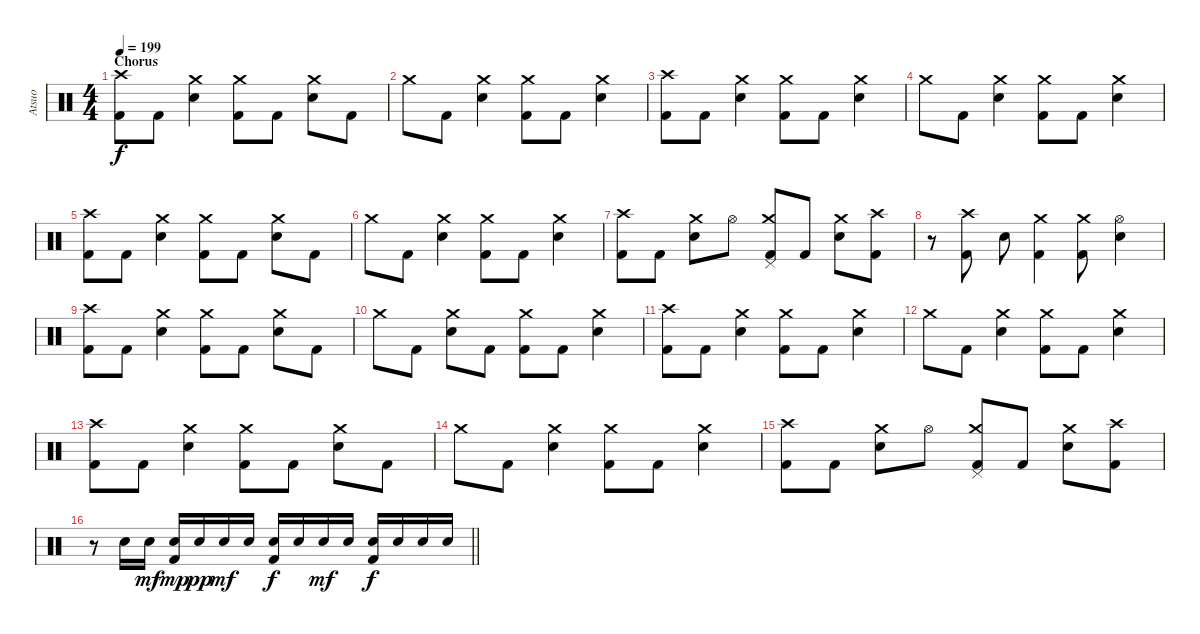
\track ("Atsuo" "Atsuo") {instrument percussion}
\staff {score}
\articulation defaults
\ts (4 4)
\section ("" "Chorus")
\tempo 199
\clef neutral
\ks c
("Crash high (hit)" "Kick (hit) 2").8{dy f} "Kick (hit) 2".8 ("Crash medium (hit)" "Electric Snare (hit)").4 ("Crash medium (hit)" "Kick (hit) 2").8 "Kick (hit) 2".8 ("Crash medium (hit)" "Electric Snare (hit)").8 "Kick (hit) 2".8 |
"Crash medium (hit)".8 "Kick (hit) 2".8 ("Crash medium (hit)" "Electric Snare (hit)").4 ("Crash medium (hit)" "Kick (hit) 2").8 "Kick (hit) 2".8 ("Crash medium (hit)" "Electric Snare (hit)").4 |
("Crash high (hit)" "Kick (hit) 2").8 "Kick (hit) 2".8 ("Crash medium (hit)" "Electric Snare (hit)").4 ("Crash medium (hit)" "Kick (hit) 2").8 "Kick (hit) 2".8 ("Crash medium (hit)" "Electric Snare (hit)").4 |
"Crash medium (hit)".8 "Kick (hit) 2".8 ("Crash medium (hit)" "Electric Snare (hit)").4 ("Crash medium (hit)" "Kick (hit) 2").8 "Kick (hit) 2".8 ("Crash medium (hit)" "Electric Snare (hit)").4 |
("Crash high (hit)" "Kick (hit) 2").8 "Kick (hit) 2".8 ("Crash medium (hit)" "Electric Snare (hit)").4 ("Crash medium (hit)" "Kick (hit) 2").8 "Kick (hit) 2".8 ("Crash medium (hit)" "Electric Snare (hit)").8 "Kick (hit) 2".8 |
"Crash medium (hit)".8 "Kick (hit) 2".8 ("Crash medium (hit)" "Electric Snare (hit)").4 ("Crash medium (hit)" "Kick (hit) 2").8 "Kick (hit) 2".8 ("Crash medium (hit)" "Electric Snare (hit)").4 |
("Crash high (hit)" "Kick (hit) 2").8 "Kick (hit) 2".8 ("Crash medium (hit)" "Electric Snare (hit)").8 "Hi-Hat (open)".8 ("Pedal Hi-Hat (hit)" "Crash medium (hit)" "Kick (hit) 2").8 "Kick (hit) 2".8 ("Crash medium (hit)" "Electric Snare (hit)").8 ("Crash high (hit)" "Kick (hit) 2").8 |
r.8 ("Crash high (hit)" "Kick (hit) 2").8 "Electric Snare (hit)".8 ("Crash medium (hit)" "Kick (hit) 2").4 ("Crash medium (hit)" "Kick (hit) 2").8 ("Hi-Hat (open)" "Electric Snare (hit)").4 |
("Crash high (hit)" "Kick (hit) 2").8 "Kick (hit) 2".8 ("Crash medium (hit)" "Electric Snare (hit)").4 ("Crash medium (hit)" "Kick (hit) 2").8 "Kick (hit) 2".8 ("Crash medium (hit)" "Electric Snare (hit)").8 "Kick (hit) 2".8 |
"Crash medium (hit)".8 "Kick (hit) 2".8 ("Crash medium (hit)" "Electric Snare (hit)").8 "Kick (hit) 2".8 ("Crash medium (hit)" "Kick (hit) 2").8 "Kick (hit) 2".8 ("Crash medium (hit)" "Electric Snare (hit)").4 |
("Crash high (hit)" "Kick (hit) 2").8 "Kick (hit) 2".8 ("Crash medium (hit)" "Electric Snare (hit)").4 ("Crash medium (hit)" "Kick (hit) 2").8 "Kick (hit) 2".8 ("Crash medium (hit)" "Electric Snare (hit)").4 |
"Crash medium (hit)".8 "Kick (hit) 2".8 ("Crash medium (hit)" "Electric Snare (hit)").4 ("Crash medium (hit)" "Kick (hit) 2").8 "Kick (hit) 2".8 ("Crash medium (hit)" "Electric Snare (hit)").4 |
("Crash high (hit)" "Kick (hit) 2").8 "Kick (hit) 2".8 ("Crash medium (hit)" "Electric Snare (hit)").4 ("Crash medium (hit)" "Kick (hit) 2").8 "Kick (hit) 2".8 ("Crash medium (hit)" "Electric Snare (hit)").8 "Kick (hit) 2".8 |
"Crash medium (hit)".8 "Kick (hit) 2".8 ("Crash medium (hit)" "Electric Snare (hit)").4 ("Crash medium (hit)" "Kick (hit) 2").8 "Kick (hit) 2".8 ("Crash medium (hit)" "Electric Snare (hit)").4 |
("Crash high (hit)" "Kick (hit) 2").8 "Kick (hit) 2".8 ("Crash medium (hit)" "Electric Snare (hit)").8 "Hi-Hat (open)".8 ("Pedal Hi-Hat (hit)" "Crash medium (hit)" "Kick (hit) 2").8 "Kick (hit) 2".8 ("Crash medium (hit)" "Electric Snare (hit)").8 ("Crash high (hit)" "Kick (hit) 2").8 |
\barLineRight lightlight
r.8 "Electric Snare (hit)".16 "Electric Snare (hit)".16{dy mf} ("Electric Snare (hit)" "Kick (hit) 2").16{dy mp} "Electric Snare (hit)".16{dy pp} "Electric Snare (hit)".16{dy mf} "Electric Snare (hit)".16 ("Electric Snare (hit)" "Kick (hit) 2").16{dy f} "Electric Snare (hit)".16 "Electric Snare (hit)".16{dy mf} "Electric Snare (hit)".16 ("Electric Snare (hit)" "Kick (hit) 2").16{dy f} "Electric Snare (hit)".16 "Electric Snare (hit)".16 "Electric Snare (hit)".16
